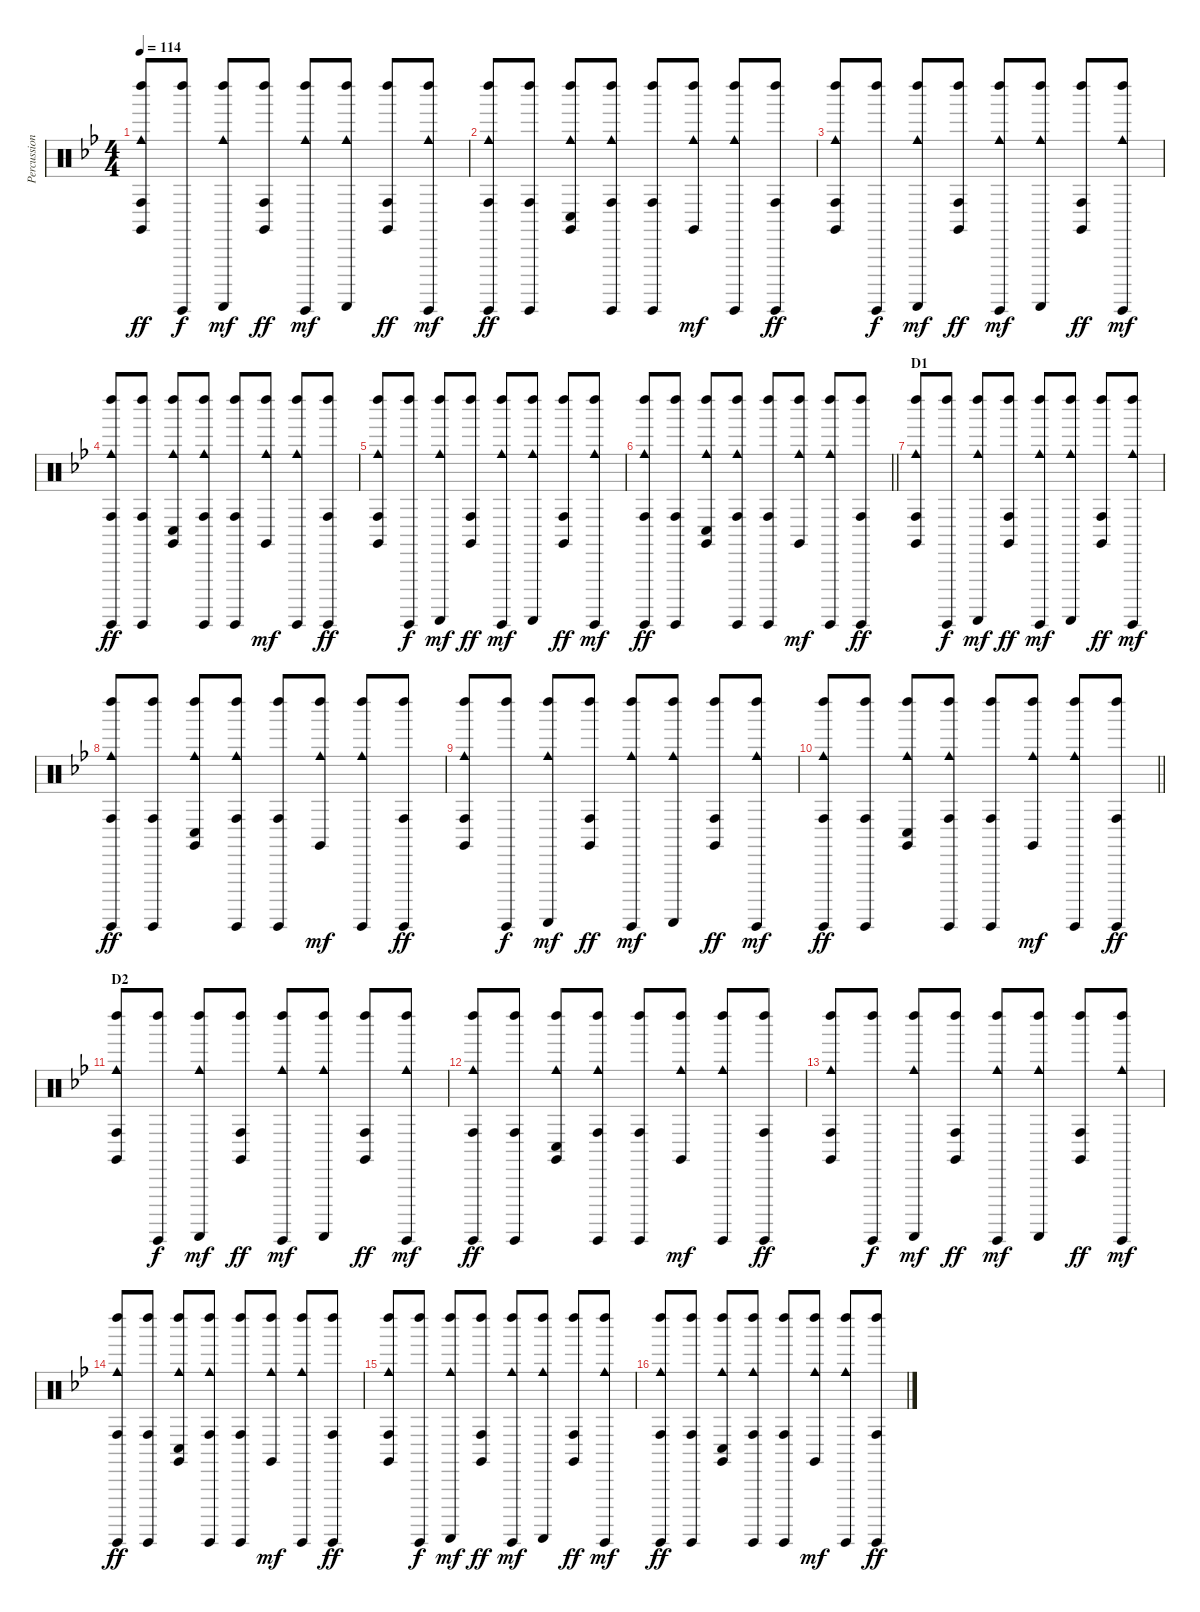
\track ("Percussion" "Percussion") {instrument percussion}
\staff {score}
\articulation defaults
\ts (4 4)
\tempo 114
\clef neutral
\ks gminor
("Claves (hit)" "Cowbell medium (hit)" "Conga high (hit)" "Left Maraca (hit)").8{dy ff} ("Guiro (hit)" "Left Maraca (hit)").8{dy f} ("Guiro (scrap-return)" "Cowbell medium (hit)" "Left Maraca (hit)").8{dy mf} ("Claves (hit)" "Conga high (hit)" "Left Maraca (hit)").8{dy ff} ("Guiro (hit)" "Cowbell medium (hit)" "Left Maraca (hit)").8{dy mf} ("Guiro (scrap-return)" "Cowbell medium (hit)" "Left Maraca (hit)").8 ("Claves (hit)" "Conga high (hit)" "Left Maraca (hit)").8{dy ff} ("Guiro (hit)" "Cowbell medium (hit)" "Left Maraca (hit)").8{dy mf} |
("Guiro (hit)" "Cowbell medium (hit)" "Conga high (hit)" "Left Maraca (hit)").8{dy ff} ("Guiro (hit)" "Conga high (hit)" "Left Maraca (hit)").8 ("Claves (hit)" "Cowbell medium (hit)" "Conga low (hit)" "Left Maraca (hit)").8 ("Guiro (hit)" "Cowbell medium (hit)" "Conga high (hit)" "Left Maraca (hit)").8 ("Guiro (hit)" "Conga high (hit)" "Left Maraca (hit)").8 ("Claves (hit)" "Cowbell medium (hit)" "Left Maraca (hit)").8{dy mf} ("Guiro (hit)" "Cowbell medium (hit)" "Left Maraca (hit)").8 ("Guiro (hit)" "Conga high (hit)" "Left Maraca (hit)").8{dy ff} |
("Claves (hit)" "Cowbell medium (hit)" "Conga high (hit)" "Left Maraca (hit)").8 ("Guiro (hit)" "Left Maraca (hit)").8{dy f} ("Guiro (scrap-return)" "Cowbell medium (hit)" "Left Maraca (hit)").8{dy mf} ("Claves (hit)" "Conga high (hit)" "Left Maraca (hit)").8{dy ff} ("Guiro (hit)" "Cowbell medium (hit)" "Left Maraca (hit)").8{dy mf} ("Guiro (scrap-return)" "Cowbell medium (hit)" "Left Maraca (hit)").8 ("Claves (hit)" "Conga high (hit)" "Left Maraca (hit)").8{dy ff} ("Guiro (hit)" "Cowbell medium (hit)" "Left Maraca (hit)").8{dy mf} |
("Guiro (hit)" "Cowbell medium (hit)" "Conga high (hit)" "Left Maraca (hit)").8{dy ff} ("Guiro (hit)" "Conga high (hit)" "Left Maraca (hit)").8 ("Claves (hit)" "Cowbell medium (hit)" "Conga low (hit)" "Left Maraca (hit)").8 ("Guiro (hit)" "Cowbell medium (hit)" "Conga high (hit)" "Left Maraca (hit)").8 ("Guiro (hit)" "Conga high (hit)" "Left Maraca (hit)").8 ("Claves (hit)" "Cowbell medium (hit)" "Left Maraca (hit)").8{dy mf} ("Guiro (hit)" "Cowbell medium (hit)" "Left Maraca (hit)").8 ("Guiro (hit)" "Conga high (hit)" "Left Maraca (hit)").8{dy ff} |
("Claves (hit)" "Cowbell medium (hit)" "Conga high (hit)" "Left Maraca (hit)").8 ("Guiro (hit)" "Left Maraca (hit)").8{dy f} ("Guiro (scrap-return)" "Cowbell medium (hit)" "Left Maraca (hit)").8{dy mf} ("Claves (hit)" "Conga high (hit)" "Left Maraca (hit)").8{dy ff} ("Guiro (hit)" "Cowbell medium (hit)" "Left Maraca (hit)").8{dy mf} ("Guiro (scrap-return)" "Cowbell medium (hit)" "Left Maraca (hit)").8 ("Claves (hit)" "Conga high (hit)" "Left Maraca (hit)").8{dy ff} ("Guiro (hit)" "Cowbell medium (hit)" "Left Maraca (hit)").8{dy mf} |
\barLineRight lightlight
("Guiro (hit)" "Cowbell medium (hit)" "Conga high (hit)" "Left Maraca (hit)").8{dy ff} ("Guiro (hit)" "Conga high (hit)" "Left Maraca (hit)").8 ("Claves (hit)" "Cowbell medium (hit)" "Conga low (hit)" "Left Maraca (hit)").8 ("Guiro (hit)" "Cowbell medium (hit)" "Conga high (hit)" "Left Maraca (hit)").8 ("Guiro (hit)" "Conga high (hit)" "Left Maraca (hit)").8 ("Claves (hit)" "Cowbell medium (hit)" "Left Maraca (hit)").8{dy mf} ("Guiro (hit)" "Cowbell medium (hit)" "Left Maraca (hit)").8 ("Guiro (hit)" "Conga high (hit)" "Left Maraca (hit)").8{dy ff} |
\section ("" "D1")
("Claves (hit)" "Cowbell medium (hit)" "Conga high (hit)" "Left Maraca (hit)").8 ("Guiro (hit)" "Left Maraca (hit)").8{dy f} ("Guiro (scrap-return)" "Cowbell medium (hit)" "Left Maraca (hit)").8{dy mf} ("Claves (hit)" "Conga high (hit)" "Left Maraca (hit)").8{dy ff} ("Guiro (hit)" "Cowbell medium (hit)" "Left Maraca (hit)").8{dy mf} ("Guiro (scrap-return)" "Cowbell medium (hit)" "Left Maraca (hit)").8 ("Claves (hit)" "Conga high (hit)" "Left Maraca (hit)").8{dy ff} ("Guiro (hit)" "Cowbell medium (hit)" "Left Maraca (hit)").8{dy mf} |
("Guiro (hit)" "Cowbell medium (hit)" "Conga high (hit)" "Left Maraca (hit)").8{dy ff} ("Guiro (hit)" "Conga high (hit)" "Left Maraca (hit)").8 ("Claves (hit)" "Cowbell medium (hit)" "Conga low (hit)" "Left Maraca (hit)").8 ("Guiro (hit)" "Cowbell medium (hit)" "Conga high (hit)" "Left Maraca (hit)").8 ("Guiro (hit)" "Conga high (hit)" "Left Maraca (hit)").8 ("Claves (hit)" "Cowbell medium (hit)" "Left Maraca (hit)").8{dy mf} ("Guiro (hit)" "Cowbell medium (hit)" "Left Maraca (hit)").8 ("Guiro (hit)" "Conga high (hit)" "Left Maraca (hit)").8{dy ff} |
("Claves (hit)" "Cowbell medium (hit)" "Conga high (hit)" "Left Maraca (hit)").8 ("Guiro (hit)" "Left Maraca (hit)").8{dy f} ("Guiro (scrap-return)" "Cowbell medium (hit)" "Left Maraca (hit)").8{dy mf} ("Claves (hit)" "Conga high (hit)" "Left Maraca (hit)").8{dy ff} ("Guiro (hit)" "Cowbell medium (hit)" "Left Maraca (hit)").8{dy mf} ("Guiro (scrap-return)" "Cowbell medium (hit)" "Left Maraca (hit)").8 ("Claves (hit)" "Conga high (hit)" "Left Maraca (hit)").8{dy ff} ("Guiro (hit)" "Cowbell medium (hit)" "Left Maraca (hit)").8{dy mf} |
\barLineRight lightlight
("Guiro (hit)" "Cowbell medium (hit)" "Conga high (hit)" "Left Maraca (hit)").8{dy ff} ("Guiro (hit)" "Conga high (hit)" "Left Maraca (hit)").8 ("Claves (hit)" "Cowbell medium (hit)" "Conga low (hit)" "Left Maraca (hit)").8 ("Guiro (hit)" "Cowbell medium (hit)" "Conga high (hit)" "Left Maraca (hit)").8 ("Guiro (hit)" "Conga high (hit)" "Left Maraca (hit)").8 ("Claves (hit)" "Cowbell medium (hit)" "Left Maraca (hit)").8{dy mf} ("Guiro (hit)" "Cowbell medium (hit)" "Left Maraca (hit)").8 ("Guiro (hit)" "Conga high (hit)" "Left Maraca (hit)").8{dy ff} |
\section ("" "D2")
("Claves (hit)" "Cowbell medium (hit)" "Conga high (hit)" "Left Maraca (hit)").8 ("Guiro (hit)" "Left Maraca (hit)").8{dy f} ("Guiro (scrap-return)" "Cowbell medium (hit)" "Left Maraca (hit)").8{dy mf} ("Claves (hit)" "Conga high (hit)" "Left Maraca (hit)").8{dy ff} ("Guiro (hit)" "Cowbell medium (hit)" "Left Maraca (hit)").8{dy mf} ("Guiro (scrap-return)" "Cowbell medium (hit)" "Left Maraca (hit)").8 ("Claves (hit)" "Conga high (hit)" "Left Maraca (hit)").8{dy ff} ("Guiro (hit)" "Cowbell medium (hit)" "Left Maraca (hit)").8{dy mf} |
("Guiro (hit)" "Cowbell medium (hit)" "Conga high (hit)" "Left Maraca (hit)").8{dy ff} ("Guiro (hit)" "Conga high (hit)" "Left Maraca (hit)").8 ("Claves (hit)" "Cowbell medium (hit)" "Conga low (hit)" "Left Maraca (hit)").8 ("Guiro (hit)" "Cowbell medium (hit)" "Conga high (hit)" "Left Maraca (hit)").8 ("Guiro (hit)" "Conga high (hit)" "Left Maraca (hit)").8 ("Claves (hit)" "Cowbell medium (hit)" "Left Maraca (hit)").8{dy mf} ("Guiro (hit)" "Cowbell medium (hit)" "Left Maraca (hit)").8 ("Guiro (hit)" "Conga high (hit)" "Left Maraca (hit)").8{dy ff} |
("Claves (hit)" "Cowbell medium (hit)" "Conga high (hit)" "Left Maraca (hit)").8 ("Guiro (hit)" "Left Maraca (hit)").8{dy f} ("Guiro (scrap-return)" "Cowbell medium (hit)" "Left Maraca (hit)").8{dy mf} ("Claves (hit)" "Conga high (hit)" "Left Maraca (hit)").8{dy ff} ("Guiro (hit)" "Cowbell medium (hit)" "Left Maraca (hit)").8{dy mf} ("Guiro (scrap-return)" "Cowbell medium (hit)" "Left Maraca (hit)").8 ("Claves (hit)" "Conga high (hit)" "Left Maraca (hit)").8{dy ff} ("Guiro (hit)" "Cowbell medium (hit)" "Left Maraca (hit)").8{dy mf} |
("Guiro (hit)" "Cowbell medium (hit)" "Conga high (hit)" "Left Maraca (hit)").8{dy ff} ("Guiro (hit)" "Conga high (hit)" "Left Maraca (hit)").8 ("Claves (hit)" "Cowbell medium (hit)" "Conga low (hit)" "Left Maraca (hit)").8 ("Guiro (hit)" "Cowbell medium (hit)" "Conga high (hit)" "Left Maraca (hit)").8 ("Guiro (hit)" "Conga high (hit)" "Left Maraca (hit)").8 ("Claves (hit)" "Cowbell medium (hit)" "Left Maraca (hit)").8{dy mf} ("Guiro (hit)" "Cowbell medium (hit)" "Left Maraca (hit)").8 ("Guiro (hit)" "Conga high (hit)" "Left Maraca (hit)").8{dy ff} |
("Claves (hit)" "Cowbell medium (hit)" "Conga high (hit)" "Left Maraca (hit)").8 ("Guiro (hit)" "Left Maraca (hit)").8{dy f} ("Guiro (scrap-return)" "Cowbell medium (hit)" "Left Maraca (hit)").8{dy mf} ("Claves (hit)" "Conga high (hit)" "Left Maraca (hit)").8{dy ff} ("Guiro (hit)" "Cowbell medium (hit)" "Left Maraca (hit)").8{dy mf} ("Guiro (scrap-return)" "Cowbell medium (hit)" "Left Maraca (hit)").8 ("Claves (hit)" "Conga high (hit)" "Left Maraca (hit)").8{dy ff} ("Guiro (hit)" "Cowbell medium (hit)" "Left Maraca (hit)").8{dy mf} |
("Guiro (hit)" "Cowbell medium (hit)" "Conga high (hit)" "Left Maraca (hit)").8{dy ff} ("Guiro (hit)" "Conga high (hit)" "Left Maraca (hit)").8 ("Claves (hit)" "Cowbell medium (hit)" "Conga low (hit)" "Left Maraca (hit)").8 ("Guiro (hit)" "Cowbell medium (hit)" "Conga high (hit)" "Left Maraca (hit)").8 ("Guiro (hit)" "Conga high (hit)" "Left Maraca (hit)").8 ("Claves (hit)" "Cowbell medium (hit)" "Left Maraca (hit)").8{dy mf} ("Guiro (hit)" "Cowbell medium (hit)" "Left Maraca (hit)").8 ("Guiro (hit)" "Conga high (hit)" "Left Maraca (hit)").8{dy ff}
